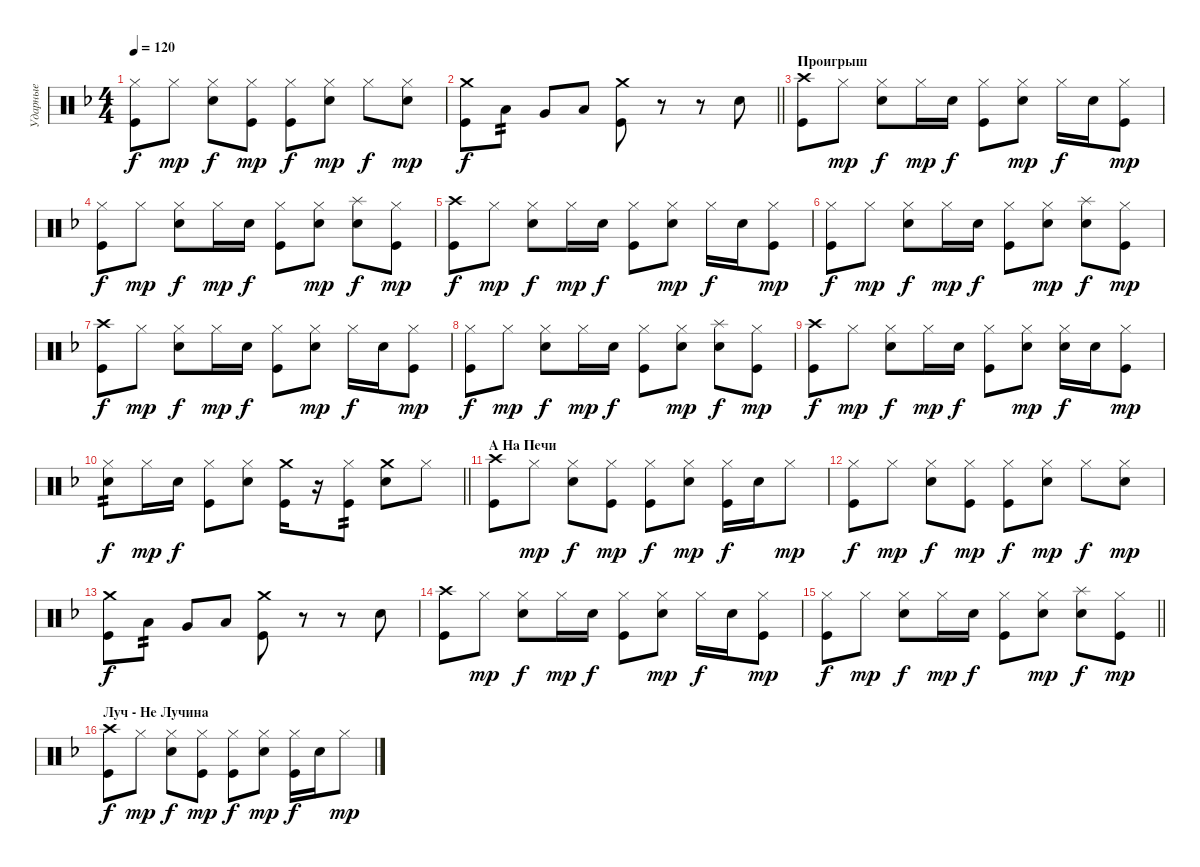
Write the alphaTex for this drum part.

\track ("Ударные" "Ударные") {instrument percussion}
\staff {score}
\articulation defaults
\ts (4 4)
\tempo 120
\clef neutral
\ks dminor
("Hi-Hat (closed)" "Kick (hit)").8{dy f} "Hi-Hat (closed)".8{dy mp} ("Hi-Hat (closed)" "Snare (hit) 2").8{dy f} ("Hi-Hat (closed)" "Kick (hit)").8{dy mp} ("Hi-Hat (closed)" "Kick (hit)").8{dy f} ("Hi-Hat (closed)" "Snare (hit) 2").8{dy mp} "Hi-Hat (closed)".8{dy f} ("Hi-Hat (closed)" "Snare (hit) 2").8{dy mp} |
\barLineRight lightlight
("Crash medium (hit)" "Kick (hit)").8{dy f} "Low Tom (hit)".8{tp 2} "Very Low Tom (hit)".8 "Low Floor Tom (hit)".8 ("Crash medium (hit)" "Kick (hit)").8 r.8 r.8 "Snare (hit) 2".8 |
\section ("" "Проигрыш")
("Crash high (hit)" "Kick (hit)").8 "Hi-Hat (closed)".8{dy mp} ("Hi-Hat (closed)" "Snare (hit) 2").8{dy f} "Hi-Hat (closed)".16{dy mp} "Snare (hit) 2".16{dy f} ("Hi-Hat (closed)" "Kick (hit)").8 ("Hi-Hat (closed)" "Snare (hit) 2").8{dy mp} "Hi-Hat (closed)".16{dy f} "Snare (hit) 2".16 ("Hi-Hat (closed)" "Kick (hit)").8{dy mp} |
("Hi-Hat (closed)" "Kick (hit)").8{dy f} "Hi-Hat (closed)".8{dy mp} ("Hi-Hat (closed)" "Snare (hit) 2").8{dy f} "Hi-Hat (closed)".16{dy mp} "Snare (hit) 2".16{dy f} ("Hi-Hat (closed)" "Kick (hit)").8 ("Hi-Hat (closed)" "Snare (hit) 2").8{dy mp} ("Splash (hit)" "Snare (hit) 2").8{dy f} ("Hi-Hat (closed)" "Kick (hit)").8{dy mp} |
("Crash high (hit)" "Kick (hit)").8{dy f} "Hi-Hat (closed)".8{dy mp} ("Hi-Hat (closed)" "Snare (hit) 2").8{dy f} "Hi-Hat (closed)".16{dy mp} "Snare (hit) 2".16{dy f} ("Hi-Hat (closed)" "Kick (hit)").8 ("Hi-Hat (closed)" "Snare (hit) 2").8{dy mp} "Hi-Hat (closed)".16{dy f} "Snare (hit) 2".16 ("Hi-Hat (closed)" "Kick (hit)").8{dy mp} |
("Hi-Hat (closed)" "Kick (hit)").8{dy f} "Hi-Hat (closed)".8{dy mp} ("Hi-Hat (closed)" "Snare (hit) 2").8{dy f} "Hi-Hat (closed)".16{dy mp} "Snare (hit) 2".16{dy f} ("Hi-Hat (closed)" "Kick (hit)").8 ("Hi-Hat (closed)" "Snare (hit) 2").8{dy mp} ("Splash (hit)" "Snare (hit) 2").8{dy f} ("Hi-Hat (closed)" "Kick (hit)").8{dy mp} |
("Crash high (hit)" "Kick (hit)").8{dy f} "Hi-Hat (closed)".8{dy mp} ("Hi-Hat (closed)" "Snare (hit) 2").8{dy f} "Hi-Hat (closed)".16{dy mp} "Snare (hit) 2".16{dy f} ("Hi-Hat (closed)" "Kick (hit)").8 ("Hi-Hat (closed)" "Snare (hit) 2").8{dy mp} "Hi-Hat (closed)".16{dy f} "Snare (hit) 2".16 ("Hi-Hat (closed)" "Kick (hit)").8{dy mp} |
("Hi-Hat (closed)" "Kick (hit)").8{dy f} "Hi-Hat (closed)".8{dy mp} ("Hi-Hat (closed)" "Snare (hit) 2").8{dy f} "Hi-Hat (closed)".16{dy mp} "Snare (hit) 2".16{dy f} ("Hi-Hat (closed)" "Kick (hit)").8 ("Hi-Hat (closed)" "Snare (hit) 2").8{dy mp} ("Splash (hit)" "Snare (hit) 2").8{dy f} ("Hi-Hat (closed)" "Kick (hit)").8{dy mp} |
("Crash high (hit)" "Kick (hit)").8{dy f} "Hi-Hat (closed)".8{dy mp} ("Hi-Hat (closed)" "Snare (hit) 2").8{dy f} "Hi-Hat (closed)".16{dy mp} "Snare (hit) 2".16{dy f} ("Hi-Hat (closed)" "Kick (hit)").8 ("Hi-Hat (closed)" "Snare (hit) 2").8{dy mp} ("Hi-Hat (closed)" "Snare (hit) 2").16{dy f} "Snare (hit) 2".16 ("Hi-Hat (closed)" "Kick (hit)").8{dy mp} |
\barLineRight lightlight
("Hi-Hat (closed)" "Snare (hit) 2").8{tp 2 dy f} "Hi-Hat (closed)".16{dy mp} "Snare (hit) 2".16{dy f} ("Hi-Hat (closed)" "Kick (hit)").8 ("Hi-Hat (closed)" "Snare (hit) 2").8 ("Crash medium (hit)" "Kick (hit)").16 r.16 ("Hi-Hat (closed)" "Kick (hit)").8{tp 2} ("Crash medium (hit)" "Snare (hit) 2").8 "Hi-Hat (closed)".8 |
\section ("" "А На Печи")
("Crash high (hit)" "Kick (hit)").8 "Hi-Hat (closed)".8{dy mp} ("Hi-Hat (closed)" "Snare (hit) 2").8{dy f} ("Hi-Hat (closed)" "Kick (hit)").8{dy mp} ("Hi-Hat (closed)" "Kick (hit)").8{dy f} ("Hi-Hat (closed)" "Snare (hit) 2").8{dy mp} ("Hi-Hat (closed)" "Kick (hit)").16{dy f} "Snare (hit) 2".16 "Hi-Hat (closed)".8{dy mp} |
("Hi-Hat (closed)" "Kick (hit)").8{dy f} "Hi-Hat (closed)".8{dy mp} ("Hi-Hat (closed)" "Snare (hit) 2").8{dy f} ("Hi-Hat (closed)" "Kick (hit)").8{dy mp} ("Hi-Hat (closed)" "Kick (hit)").8{dy f} ("Hi-Hat (closed)" "Snare (hit) 2").8{dy mp} "Hi-Hat (closed)".8{dy f} ("Hi-Hat (closed)" "Snare (hit) 2").8{dy mp} |
("Crash medium (hit)" "Kick (hit)").8{dy f} "Low Tom (hit)".8{tp 2} "Very Low Tom (hit)".8 "Low Floor Tom (hit)".8 ("Crash medium (hit)" "Kick (hit)").8 r.8 r.8 "Snare (hit) 2".8 |
("Crash high (hit)" "Kick (hit)").8 "Hi-Hat (closed)".8{dy mp} ("Hi-Hat (closed)" "Snare (hit) 2").8{dy f} "Hi-Hat (closed)".16{dy mp} "Snare (hit) 2".16{dy f} ("Hi-Hat (closed)" "Kick (hit)").8 ("Hi-Hat (closed)" "Snare (hit) 2").8{dy mp} "Hi-Hat (closed)".16{dy f} "Snare (hit) 2".16 ("Hi-Hat (closed)" "Kick (hit)").8{dy mp} |
\barLineRight lightlight
("Hi-Hat (closed)" "Kick (hit)").8{dy f} "Hi-Hat (closed)".8{dy mp} ("Hi-Hat (closed)" "Snare (hit) 2").8{dy f} "Hi-Hat (closed)".16{dy mp} "Snare (hit) 2".16{dy f} ("Hi-Hat (closed)" "Kick (hit)").8 ("Hi-Hat (closed)" "Snare (hit) 2").8{dy mp} ("Splash (hit)" "Snare (hit) 2").8{dy f} ("Hi-Hat (closed)" "Kick (hit)").8{dy mp} |
\section ("" "Луч - Не Лучина")
("Crash high (hit)" "Kick (hit)").8{dy f} "Hi-Hat (closed)".8{dy mp} ("Hi-Hat (closed)" "Snare (hit) 2").8{dy f} ("Hi-Hat (closed)" "Kick (hit)").8{dy mp} ("Hi-Hat (closed)" "Kick (hit)").8{dy f} ("Hi-Hat (closed)" "Snare (hit) 2").8{dy mp} ("Hi-Hat (closed)" "Kick (hit)").16{dy f} "Snare (hit) 2".16 "Hi-Hat (closed)".8{dy mp}
